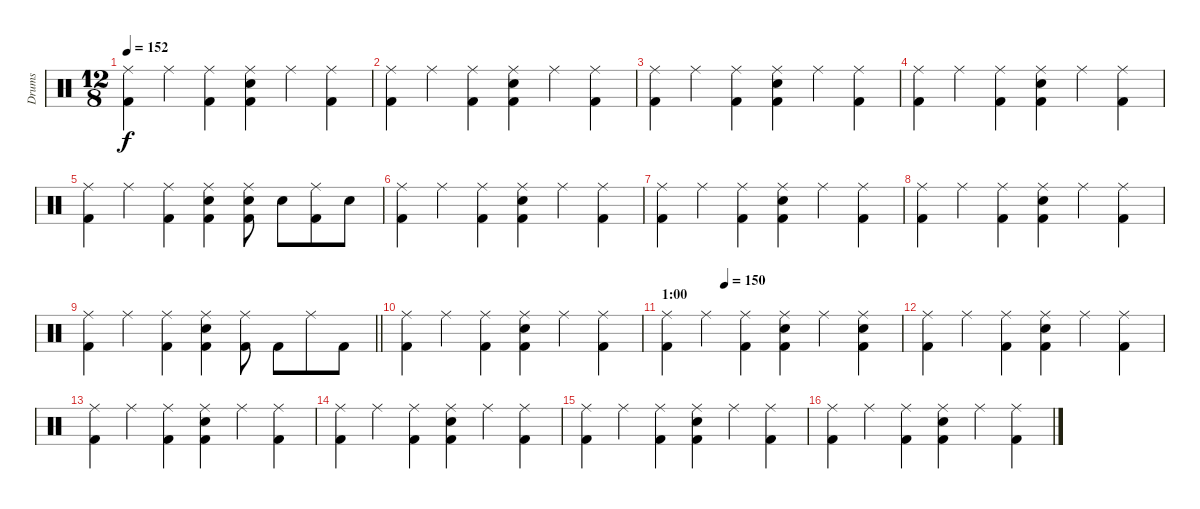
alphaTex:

\track ("Drums" "Drums") {instrument percussion}
\staff {score}
\articulation defaults
\ts (12 8)
\tempo 152
\clef neutral
\ks c
("Ride (middle)" "Kick (hit) 2").4{dy f} "Ride (middle)".4 ("Ride (middle)" "Kick (hit) 2").4 ("Ride (middle)" "Snare (hit) 2" "Kick (hit) 2").4 "Ride (middle)".4 ("Ride (middle)" "Kick (hit) 2").4 |
("Ride (middle)" "Kick (hit) 2").4 "Ride (middle)".4 ("Ride (middle)" "Kick (hit) 2").4 ("Ride (middle)" "Snare (hit) 2" "Kick (hit) 2").4 "Ride (middle)".4 ("Ride (middle)" "Kick (hit) 2").4 |
("Ride (middle)" "Kick (hit) 2").4 "Ride (middle)".4 ("Ride (middle)" "Kick (hit) 2").4 ("Ride (middle)" "Snare (hit) 2" "Kick (hit) 2").4 "Ride (middle)".4 ("Ride (middle)" "Kick (hit) 2").4 |
("Ride (middle)" "Kick (hit) 2").4 "Ride (middle)".4 ("Ride (middle)" "Kick (hit) 2").4 ("Ride (middle)" "Snare (hit) 2" "Kick (hit) 2").4 "Ride (middle)".4 ("Ride (middle)" "Kick (hit) 2").4 |
("Ride (middle)" "Kick (hit) 2").4 "Ride (middle)".4 ("Ride (middle)" "Kick (hit) 2").4 ("Ride (middle)" "Snare (hit) 2" "Kick (hit) 2").4 ("Ride (middle)" "Snare (hit) 2" "Kick (hit) 2").8 "Snare (hit) 2".8 ("Ride (middle)" "Kick (hit) 2").8 "Snare (hit) 2".8 |
("Ride (middle)" "Kick (hit) 2").4 "Ride (middle)".4 ("Ride (middle)" "Kick (hit) 2").4 ("Ride (middle)" "Snare (hit) 2" "Kick (hit) 2").4 "Ride (middle)".4 ("Ride (middle)" "Kick (hit) 2").4 |
("Ride (middle)" "Kick (hit) 2").4 "Ride (middle)".4 ("Ride (middle)" "Kick (hit) 2").4 ("Ride (middle)" "Snare (hit) 2" "Kick (hit) 2").4 "Ride (middle)".4 ("Ride (middle)" "Kick (hit) 2").4 |
("Ride (middle)" "Kick (hit) 2").4 "Ride (middle)".4 ("Ride (middle)" "Kick (hit) 2").4 ("Ride (middle)" "Snare (hit) 2" "Kick (hit) 2").4 "Ride (middle)".4 ("Ride (middle)" "Kick (hit) 2").4 |
\barLineRight lightlight
("Ride (middle)" "Kick (hit) 2").4 "Ride (middle)".4 ("Ride (middle)" "Kick (hit) 2").4 ("Ride (middle)" "Snare (hit) 2" "Kick (hit) 2").4 ("Ride (middle)" "Kick (hit) 2").8 "Kick (hit) 2".8 "Ride (middle)".8 "Kick (hit) 2".8 |
("Ride (middle)" "Kick (hit) 2").4 "Ride (middle)".4 ("Ride (middle)" "Kick (hit) 2").4 ("Ride (middle)" "Snare (hit) 2" "Kick (hit) 2").4 "Ride (middle)".4 ("Ride (middle)" "Kick (hit) 2").4 |
\section ("" "1:00")
\tempo (150 0.25)
("Ride (middle)" "Kick (hit) 2").4 "Ride (middle)".4 ("Ride (middle)" "Kick (hit) 2").4 ("Ride (middle)" "Snare (hit) 2" "Kick (hit) 2").4 "Ride (middle)".4 ("Ride (middle)" "Snare (hit) 2" "Kick (hit) 2").4 |
("Ride (middle)" "Kick (hit) 2").4 "Ride (middle)".4 ("Ride (middle)" "Kick (hit) 2").4 ("Ride (middle)" "Snare (hit) 2" "Kick (hit) 2").4 "Ride (middle)".4 ("Ride (middle)" "Kick (hit) 2").4 |
("Ride (middle)" "Kick (hit) 2").4 "Ride (middle)".4 ("Ride (middle)" "Kick (hit) 2").4 ("Ride (middle)" "Snare (hit) 2" "Kick (hit) 2").4 "Ride (middle)".4 ("Ride (middle)" "Kick (hit) 2").4 |
("Ride (middle)" "Kick (hit) 2").4 "Ride (middle)".4 ("Ride (middle)" "Kick (hit) 2").4 ("Ride (middle)" "Snare (hit) 2" "Kick (hit) 2").4 "Ride (middle)".4 ("Ride (middle)" "Kick (hit) 2").4 |
("Ride (middle)" "Kick (hit) 2").4 "Ride (middle)".4 ("Ride (middle)" "Kick (hit) 2").4 ("Ride (middle)" "Snare (hit) 2" "Kick (hit) 2").4 "Ride (middle)".4 ("Ride (middle)" "Kick (hit) 2").4 |
("Ride (middle)" "Kick (hit) 2").4 "Ride (middle)".4 ("Ride (middle)" "Kick (hit) 2").4 ("Ride (middle)" "Snare (hit) 2" "Kick (hit) 2").4 "Ride (middle)".4 ("Ride (middle)" "Kick (hit) 2").4
